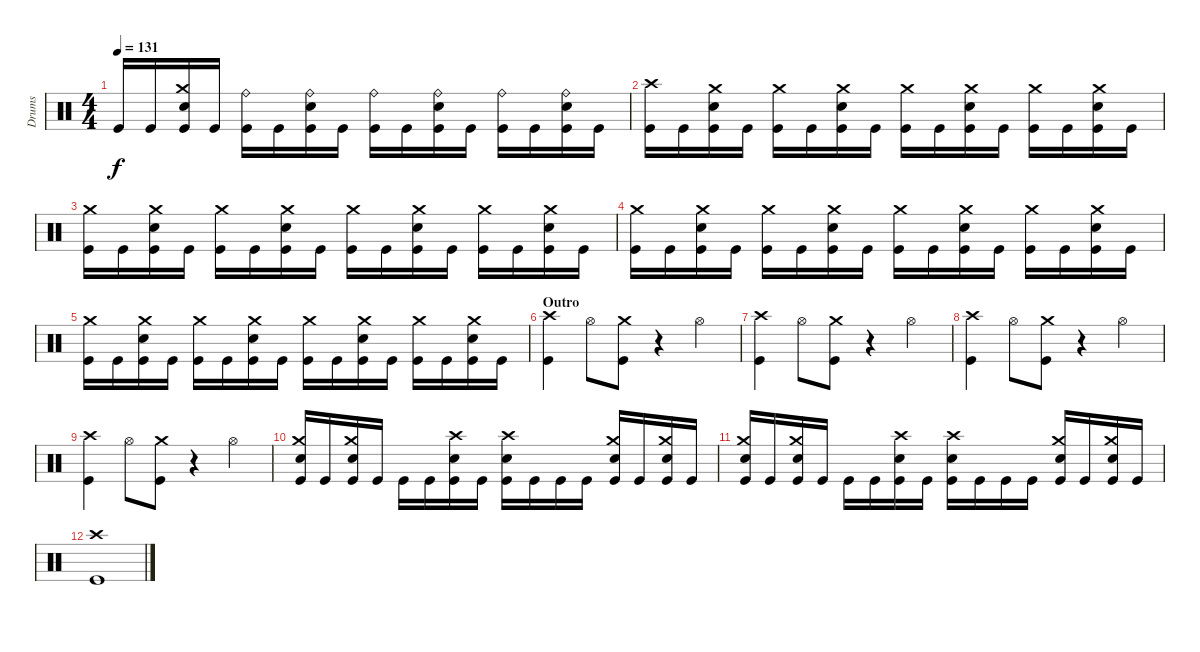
\track ("Drums" "Drums") {instrument percussion}
\staff {score}
\articulation defaults
\ts (4 4)
\tempo 131
\clef neutral
\ks c "Kick (hit)".16{dy f} "Kick (hit)".16
("Crash medium (hit)" "Snare (hit) 2" "Kick (hit)").16 "Kick (hit)".16 ("Ride (bell)" "Kick (hit)").16 "Kick (hit)".16 ("Ride (bell)" "Snare (hit) 2" "Kick (hit)").16 "Kick (hit)".16 ("Ride (bell)" "Kick (hit)").16 "Kick (hit)".16 ("Ride (bell)" "Snare (hit) 2" "Kick (hit)").16 "Kick (hit)".16 ("Ride (bell)" "Kick (hit)").16 "Kick (hit)".16 ("Ride (bell)" "Snare (hit) 2" "Kick (hit)").16 "Kick (hit)".16 |
("Crash high (hit)" "Kick (hit)").16 "Kick (hit)".16 ("Crash medium (hit)" "Snare (hit) 2" "Kick (hit)").16 "Kick (hit)".16 ("Crash medium (hit)" "Kick (hit)").16 "Kick (hit)".16 ("Crash medium (hit)" "Snare (hit) 2" "Kick (hit)").16 "Kick (hit)".16 ("Crash medium (hit)" "Kick (hit)").16 "Kick (hit)".16 ("Crash medium (hit)" "Snare (hit) 2" "Kick (hit)").16 "Kick (hit)".16 ("Crash medium (hit)" "Kick (hit)").16 "Kick (hit)".16 ("Crash medium (hit)" "Snare (hit) 2" "Kick (hit)").16 "Kick (hit)".16 |
("Crash medium (hit)" "Kick (hit)").16 "Kick (hit)".16 ("Crash medium (hit)" "Snare (hit) 2" "Kick (hit)").16 "Kick (hit)".16 ("Crash medium (hit)" "Kick (hit)").16 "Kick (hit)".16 ("Crash medium (hit)" "Snare (hit) 2" "Kick (hit)").16 "Kick (hit)".16 ("Crash medium (hit)" "Kick (hit)").16 "Kick (hit)".16 ("Crash medium (hit)" "Snare (hit) 2" "Kick (hit)").16 "Kick (hit)".16 ("Crash medium (hit)" "Kick (hit)").16 "Kick (hit)".16 ("Crash medium (hit)" "Snare (hit) 2" "Kick (hit)").16 "Kick (hit)".16 |
("Crash medium (hit)" "Kick (hit)").16 "Kick (hit)".16 ("Crash medium (hit)" "Snare (hit) 2" "Kick (hit)").16 "Kick (hit)".16 ("Crash medium (hit)" "Kick (hit)").16 "Kick (hit)".16 ("Crash medium (hit)" "Snare (hit) 2" "Kick (hit)").16 "Kick (hit)".16 ("Crash medium (hit)" "Kick (hit)").16 "Kick (hit)".16 ("Crash medium (hit)" "Snare (hit) 2" "Kick (hit)").16 "Kick (hit)".16 ("Crash medium (hit)" "Kick (hit)").16 "Kick (hit)".16 ("Crash medium (hit)" "Snare (hit) 2" "Kick (hit)").16 "Kick (hit)".16 |
("Crash medium (hit)" "Kick (hit)").16 "Kick (hit)".16 ("Crash medium (hit)" "Snare (hit) 2" "Kick (hit)").16 "Kick (hit)".16 ("Crash medium (hit)" "Kick (hit)").16 "Kick (hit)".16 ("Crash medium (hit)" "Snare (hit) 2" "Kick (hit)").16 "Kick (hit)".16 ("Crash medium (hit)" "Kick (hit)").16 "Kick (hit)".16 ("Crash medium (hit)" "Snare (hit) 2" "Kick (hit)").16 "Kick (hit)".16 ("Crash medium (hit)" "Kick (hit)").16 "Kick (hit)".16 ("Crash medium (hit)" "Snare (hit) 2" "Kick (hit)").16 "Kick (hit)".16 |
\section ("" "Outro")
("Crash high (hit)" "Kick (hit)").4 "Hi-Hat (open)".8 ("Crash medium (hit)" "Kick (hit)").8 r.4 "Hi-Hat (open)".4 |
("Crash high (hit)" "Kick (hit)").4 "Hi-Hat (open)".8 ("Crash medium (hit)" "Kick (hit)").8 r.4 "Hi-Hat (open)".4 |
("Crash high (hit)" "Kick (hit)").4 "Hi-Hat (open)".8 ("Crash medium (hit)" "Kick (hit)").8 r.4 "Hi-Hat (open)".4 |
("Crash high (hit)" "Kick (hit)").4 "Hi-Hat (open)".8 ("Crash medium (hit)" "Kick (hit)").8 r.4 "Hi-Hat (open)".4 |
("Crash medium (hit)" "Snare (hit) 2" "Kick (hit)").16 "Kick (hit)".16 ("Crash medium (hit)" "Snare (hit) 2" "Kick (hit)").16 "Kick (hit)".16 "Kick (hit)".16 "Kick (hit)".16 ("Crash high (hit)" "Snare (hit) 2" "Kick (hit)").16 "Kick (hit)".16 ("Crash high (hit)" "Snare (hit) 2" "Kick (hit)").16 "Kick (hit)".16 "Kick (hit)".16 "Kick (hit)".16 ("Crash medium (hit)" "Snare (hit) 2" "Kick (hit)").16 "Kick (hit)".16 ("Crash medium (hit)" "Snare (hit) 2" "Kick (hit)").16 "Kick (hit)".16 |
("Crash medium (hit)" "Snare (hit) 2" "Kick (hit)").16 "Kick (hit)".16 ("Crash medium (hit)" "Snare (hit) 2" "Kick (hit)").16 "Kick (hit)".16 "Kick (hit)".16 "Kick (hit)".16 ("Crash high (hit)" "Snare (hit) 2" "Kick (hit)").16 "Kick (hit)".16 ("Crash high (hit)" "Snare (hit) 2" "Kick (hit)").16 "Kick (hit)".16 "Kick (hit)".16 "Kick (hit)".16 ("Crash medium (hit)" "Snare (hit) 2" "Kick (hit)").16 "Kick (hit)".16 ("Crash medium (hit)" "Snare (hit) 2" "Kick (hit)").16 "Kick (hit)".16 |
("Crash high (hit)" "Kick (hit)").1
